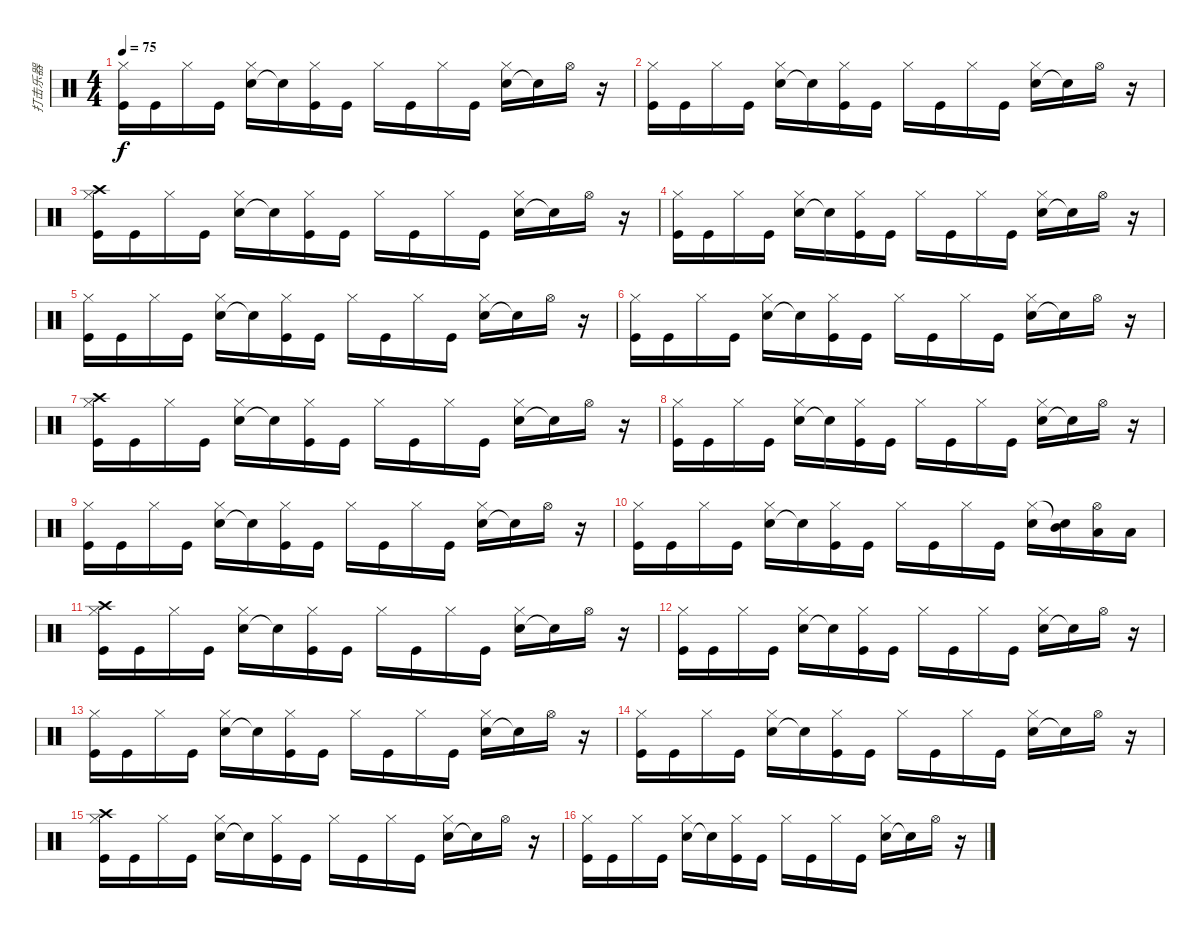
\track ("打击乐器" "打击乐器") {instrument percussion}
\staff {score}
\articulation defaults
\ts (4 4)
\tempo 75
\clef neutral
\ks c
("Kick (hit)" "Hi-Hat (closed)").16{dy f} "Kick (hit)".16 "Hi-Hat (closed)".16 "Kick (hit)".16 ("Electric Snare (hit)" "Hi-Hat (closed)").16 "Electric Snare (hit)"{t}.16 ("Kick (hit)" "Hi-Hat (closed)").16 "Kick (hit)".16 "Hi-Hat (closed)".16 "Kick (hit)".16 "Hi-Hat (closed)".16 "Kick (hit)".16 ("Electric Snare (hit)" "Hi-Hat (closed)").16 "Electric Snare (hit)"{t}.16 "Hi-Hat (open)".16 r.16 |
("Kick (hit)" "Hi-Hat (closed)").16 "Kick (hit)".16 "Hi-Hat (closed)".16 "Kick (hit)".16 ("Electric Snare (hit)" "Hi-Hat (closed)").16 "Electric Snare (hit)"{t}.16 ("Kick (hit)" "Hi-Hat (closed)").16 "Kick (hit)".16 "Hi-Hat (closed)".16 "Kick (hit)".16 "Hi-Hat (closed)".16 "Kick (hit)".16 ("Electric Snare (hit)" "Hi-Hat (closed)").16 "Electric Snare (hit)"{t}.16 "Hi-Hat (open)".16 r.16 |
("Crash high (hit)" "Kick (hit)" "Hi-Hat (closed)").16 "Kick (hit)".16 "Hi-Hat (closed)".16 "Kick (hit)".16 ("Electric Snare (hit)" "Hi-Hat (closed)").16 "Electric Snare (hit)"{t}.16 ("Kick (hit)" "Hi-Hat (closed)").16 "Kick (hit)".16 "Hi-Hat (closed)".16 "Kick (hit)".16 "Hi-Hat (closed)".16 "Kick (hit)".16 ("Electric Snare (hit)" "Hi-Hat (closed)").16 "Electric Snare (hit)"{t}.16 "Hi-Hat (open)".16 r.16 |
("Kick (hit)" "Hi-Hat (closed)").16 "Kick (hit)".16 "Hi-Hat (closed)".16 "Kick (hit)".16 ("Electric Snare (hit)" "Hi-Hat (closed)").16 "Electric Snare (hit)"{t}.16 ("Kick (hit)" "Hi-Hat (closed)").16 "Kick (hit)".16 "Hi-Hat (closed)".16 "Kick (hit)".16 "Hi-Hat (closed)".16 "Kick (hit)".16 ("Electric Snare (hit)" "Hi-Hat (closed)").16 "Electric Snare (hit)"{t}.16 "Hi-Hat (open)".16 r.16 |
("Kick (hit)" "Hi-Hat (closed)").16 "Kick (hit)".16 "Hi-Hat (closed)".16 "Kick (hit)".16 ("Electric Snare (hit)" "Hi-Hat (closed)").16 "Electric Snare (hit)"{t}.16 ("Kick (hit)" "Hi-Hat (closed)").16 "Kick (hit)".16 "Hi-Hat (closed)".16 "Kick (hit)".16 "Hi-Hat (closed)".16 "Kick (hit)".16 ("Electric Snare (hit)" "Hi-Hat (closed)").16 "Electric Snare (hit)"{t}.16 "Hi-Hat (open)".16 r.16 |
("Kick (hit)" "Hi-Hat (closed)").16 "Kick (hit)".16 "Hi-Hat (closed)".16 "Kick (hit)".16 ("Electric Snare (hit)" "Hi-Hat (closed)").16 "Electric Snare (hit)"{t}.16 ("Kick (hit)" "Hi-Hat (closed)").16 "Kick (hit)".16 "Hi-Hat (closed)".16 "Kick (hit)".16 "Hi-Hat (closed)".16 "Kick (hit)".16 ("Electric Snare (hit)" "Hi-Hat (closed)").16 "Electric Snare (hit)"{t}.16 "Hi-Hat (open)".16 r.16 |
("Crash high (hit)" "Kick (hit)" "Hi-Hat (closed)").16 "Kick (hit)".16 "Hi-Hat (closed)".16 "Kick (hit)".16 ("Electric Snare (hit)" "Hi-Hat (closed)").16 "Electric Snare (hit)"{t}.16 ("Kick (hit)" "Hi-Hat (closed)").16 "Kick (hit)".16 "Hi-Hat (closed)".16 "Kick (hit)".16 "Hi-Hat (closed)".16 "Kick (hit)".16 ("Electric Snare (hit)" "Hi-Hat (closed)").16 "Electric Snare (hit)"{t}.16 "Hi-Hat (open)".16 r.16 |
("Kick (hit)" "Hi-Hat (closed)").16 "Kick (hit)".16 "Hi-Hat (closed)".16 "Kick (hit)".16 ("Electric Snare (hit)" "Hi-Hat (closed)").16 "Electric Snare (hit)"{t}.16 ("Kick (hit)" "Hi-Hat (closed)").16 "Kick (hit)".16 "Hi-Hat (closed)".16 "Kick (hit)".16 "Hi-Hat (closed)".16 "Kick (hit)".16 ("Electric Snare (hit)" "Hi-Hat (closed)").16 "Electric Snare (hit)"{t}.16 "Hi-Hat (open)".16 r.16 |
("Kick (hit)" "Hi-Hat (closed)").16 "Kick (hit)".16 "Hi-Hat (closed)".16 "Kick (hit)".16 ("Electric Snare (hit)" "Hi-Hat (closed)").16 "Electric Snare (hit)"{t}.16 ("Kick (hit)" "Hi-Hat (closed)").16 "Kick (hit)".16 "Hi-Hat (closed)".16 "Kick (hit)".16 "Hi-Hat (closed)".16 "Kick (hit)".16 ("Electric Snare (hit)" "Hi-Hat (closed)").16 "Electric Snare (hit)"{t}.16 "Hi-Hat (open)".16 r.16 |
("Kick (hit)" "Hi-Hat (closed)").16 "Kick (hit)".16 "Hi-Hat (closed)".16 "Kick (hit)".16 ("Electric Snare (hit)" "Hi-Hat (closed)").16 "Electric Snare (hit)"{t}.16 ("Kick (hit)" "Hi-Hat (closed)").16 "Kick (hit)".16 "Hi-Hat (closed)".16 "Kick (hit)".16 "Hi-Hat (closed)".16 "Kick (hit)".16 ("Electric Snare (hit)" "Hi-Hat (closed)").16 ("Mid Tom (hit)" "Electric Snare (hit)"{t}).16 ("Low Tom (hit)" "Hi-Hat (open)").16 "Low Floor Tom (hit)".16 |
("Crash high (hit)" "Kick (hit)" "Hi-Hat (closed)").16 "Kick (hit)".16 "Hi-Hat (closed)".16 "Kick (hit)".16 ("Electric Snare (hit)" "Hi-Hat (closed)").16 "Electric Snare (hit)"{t}.16 ("Kick (hit)" "Hi-Hat (closed)").16 "Kick (hit)".16 "Hi-Hat (closed)".16 "Kick (hit)".16 "Hi-Hat (closed)".16 "Kick (hit)".16 ("Electric Snare (hit)" "Hi-Hat (closed)").16 "Electric Snare (hit)"{t}.16 "Hi-Hat (open)".16 r.16 |
("Kick (hit)" "Hi-Hat (closed)").16 "Kick (hit)".16 "Hi-Hat (closed)".16 "Kick (hit)".16 ("Electric Snare (hit)" "Hi-Hat (closed)").16 "Electric Snare (hit)"{t}.16 ("Kick (hit)" "Hi-Hat (closed)").16 "Kick (hit)".16 "Hi-Hat (closed)".16 "Kick (hit)".16 "Hi-Hat (closed)".16 "Kick (hit)".16 ("Electric Snare (hit)" "Hi-Hat (closed)").16 "Electric Snare (hit)"{t}.16 "Hi-Hat (open)".16 r.16 |
("Kick (hit)" "Hi-Hat (closed)").16 "Kick (hit)".16 "Hi-Hat (closed)".16 "Kick (hit)".16 ("Electric Snare (hit)" "Hi-Hat (closed)").16 "Electric Snare (hit)"{t}.16 ("Kick (hit)" "Hi-Hat (closed)").16 "Kick (hit)".16 "Hi-Hat (closed)".16 "Kick (hit)".16 "Hi-Hat (closed)".16 "Kick (hit)".16 ("Electric Snare (hit)" "Hi-Hat (closed)").16 "Electric Snare (hit)"{t}.16 "Hi-Hat (open)".16 r.16 |
("Kick (hit)" "Hi-Hat (closed)").16 "Kick (hit)".16 "Hi-Hat (closed)".16 "Kick (hit)".16 ("Electric Snare (hit)" "Hi-Hat (closed)").16 "Electric Snare (hit)"{t}.16 ("Kick (hit)" "Hi-Hat (closed)").16 "Kick (hit)".16 "Hi-Hat (closed)".16 "Kick (hit)".16 "Hi-Hat (closed)".16 "Kick (hit)".16 ("Electric Snare (hit)" "Hi-Hat (closed)").16 "Electric Snare (hit)"{t}.16 "Hi-Hat (open)".16 r.16 |
("Crash high (hit)" "Kick (hit)" "Hi-Hat (closed)").16 "Kick (hit)".16 "Hi-Hat (closed)".16 "Kick (hit)".16 ("Electric Snare (hit)" "Hi-Hat (closed)").16 "Electric Snare (hit)"{t}.16 ("Kick (hit)" "Hi-Hat (closed)").16 "Kick (hit)".16 "Hi-Hat (closed)".16 "Kick (hit)".16 "Hi-Hat (closed)".16 "Kick (hit)".16 ("Electric Snare (hit)" "Hi-Hat (closed)").16 "Electric Snare (hit)"{t}.16 "Hi-Hat (open)".16 r.16 |
("Kick (hit)" "Hi-Hat (closed)").16 "Kick (hit)".16 "Hi-Hat (closed)".16 "Kick (hit)".16 ("Electric Snare (hit)" "Hi-Hat (closed)").16 "Electric Snare (hit)"{t}.16 ("Kick (hit)" "Hi-Hat (closed)").16 "Kick (hit)".16 "Hi-Hat (closed)".16 "Kick (hit)".16 "Hi-Hat (closed)".16 "Kick (hit)".16 ("Electric Snare (hit)" "Hi-Hat (closed)").16 "Electric Snare (hit)"{t}.16 "Hi-Hat (open)".16 r.16
